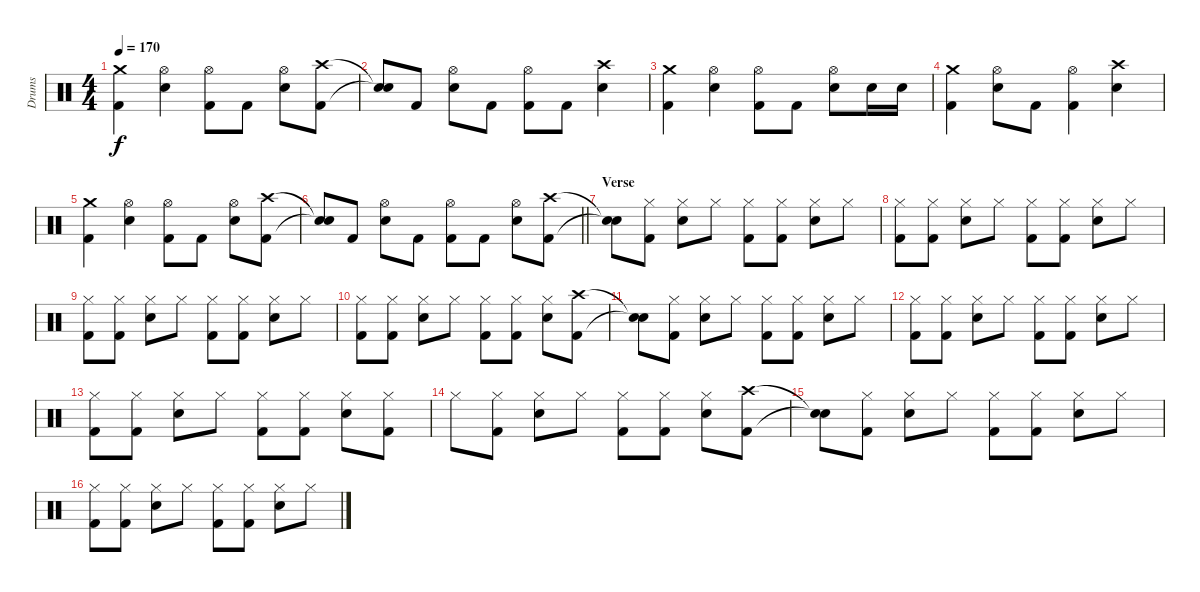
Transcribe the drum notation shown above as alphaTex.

\track ("Drums" "Drums") {instrument percussion}
\staff {score}
\articulation defaults
\ts (4 4)
\tempo 170
\clef neutral
\ks c
("Crash medium (hit)" "Kick (hit) 2").4{dy f} ("Hi-Hat (open)" "Electric Snare (hit)").4 ("Hi-Hat (open)" "Kick (hit) 2").8 "Kick (hit) 2".8 ("Hi-Hat (open)" "Electric Snare (hit)").8 ("Crash high (hit)" "Kick (hit) 2").8 |
("Snare (hit)"{t} "Snare (hit)"{t}).8 "Kick (hit) 2".8 ("Hi-Hat (open)" "Electric Snare (hit)").8 "Kick (hit) 2".8 ("Hi-Hat (open)" "Kick (hit) 2").8 "Kick (hit) 2".8 ("Crash high (hit)" "Electric Snare (hit)").4 |
("Crash medium (hit)" "Kick (hit) 2").4 ("Hi-Hat (open)" "Electric Snare (hit)").4 ("Hi-Hat (open)" "Kick (hit) 2").8 "Kick (hit) 2".8 ("Hi-Hat (open)" "Electric Snare (hit)").8 "Electric Snare (hit)".16 "Electric Snare (hit)".16 |
("Crash medium (hit)" "Kick (hit) 2").4 ("Hi-Hat (open)" "Electric Snare (hit)").8 "Kick (hit) 2".8 ("Hi-Hat (open)" "Kick (hit) 2").4 ("Crash high (hit)" "Electric Snare (hit)").4 |
("Crash medium (hit)" "Kick (hit) 2").4 ("Hi-Hat (open)" "Electric Snare (hit)").4 ("Hi-Hat (open)" "Kick (hit) 2").8 "Kick (hit) 2".8 ("Hi-Hat (open)" "Electric Snare (hit)").8 ("Crash high (hit)" "Kick (hit) 2").8 |
\barLineRight lightlight
("Snare (hit)"{t} "Snare (hit)"{t}).8 "Kick (hit) 2".8 ("Hi-Hat (open)" "Electric Snare (hit)").8 "Kick (hit) 2".8 ("Hi-Hat (open)" "Kick (hit) 2").8 "Kick (hit) 2".8 ("Hi-Hat (open)" "Electric Snare (hit)").8 ("Crash high (hit)" "Kick (hit) 2").8 |
\section ("" "Verse")
("Snare (hit)"{t} "Snare (hit)"{t}).8 ("Hi-Hat (closed)" "Kick (hit) 2").8 ("Hi-Hat (closed)" "Electric Snare (hit)").8 "Hi-Hat (closed)".8 ("Hi-Hat (closed)" "Kick (hit) 2").8 ("Hi-Hat (closed)" "Kick (hit) 2").8 ("Hi-Hat (closed)" "Electric Snare (hit)").8 "Hi-Hat (closed)".8 |
("Hi-Hat (closed)" "Kick (hit) 2").8 ("Hi-Hat (closed)" "Kick (hit) 2").8 ("Hi-Hat (closed)" "Electric Snare (hit)").8 "Hi-Hat (closed)".8 ("Hi-Hat (closed)" "Kick (hit) 2").8 ("Hi-Hat (closed)" "Kick (hit) 2").8 ("Hi-Hat (closed)" "Electric Snare (hit)").8 "Hi-Hat (closed)".8 |
("Hi-Hat (closed)" "Kick (hit) 2").8 ("Hi-Hat (closed)" "Kick (hit) 2").8 ("Hi-Hat (closed)" "Electric Snare (hit)").8 "Hi-Hat (closed)".8 ("Hi-Hat (closed)" "Kick (hit) 2").8 ("Hi-Hat (closed)" "Kick (hit) 2").8 ("Hi-Hat (closed)" "Electric Snare (hit)").8 "Hi-Hat (closed)".8 |
("Hi-Hat (closed)" "Kick (hit) 2").8 ("Hi-Hat (closed)" "Kick (hit) 2").8 ("Hi-Hat (closed)" "Electric Snare (hit)").8 "Hi-Hat (closed)".8 ("Hi-Hat (closed)" "Kick (hit) 2").8 ("Hi-Hat (closed)" "Kick (hit) 2").8 ("Hi-Hat (closed)" "Electric Snare (hit)").8 ("Crash high (hit)" "Kick (hit) 2").8 |
("Snare (hit)"{t} "Snare (hit)"{t}).8 ("Hi-Hat (closed)" "Kick (hit) 2").8 ("Hi-Hat (closed)" "Electric Snare (hit)").8 "Hi-Hat (closed)".8 ("Hi-Hat (closed)" "Kick (hit) 2").8 ("Hi-Hat (closed)" "Kick (hit) 2").8 ("Hi-Hat (closed)" "Electric Snare (hit)").8 "Hi-Hat (closed)".8 |
("Hi-Hat (closed)" "Kick (hit) 2").8 ("Hi-Hat (closed)" "Kick (hit) 2").8 ("Hi-Hat (closed)" "Electric Snare (hit)").8 "Hi-Hat (closed)".8 ("Hi-Hat (closed)" "Kick (hit) 2").8 ("Hi-Hat (closed)" "Kick (hit) 2").8 ("Hi-Hat (closed)" "Electric Snare (hit)").8 "Hi-Hat (closed)".8 |
("Hi-Hat (closed)" "Kick (hit) 2").8 ("Hi-Hat (closed)" "Kick (hit) 2").8 ("Hi-Hat (closed)" "Electric Snare (hit)").8 "Hi-Hat (closed)".8 ("Hi-Hat (closed)" "Kick (hit) 2").8 ("Hi-Hat (closed)" "Kick (hit) 2").8 ("Hi-Hat (closed)" "Electric Snare (hit)").8 ("Hi-Hat (closed)" "Kick (hit) 2").8 |
"Hi-Hat (closed)".8 ("Hi-Hat (closed)" "Kick (hit) 2").8 ("Hi-Hat (closed)" "Electric Snare (hit)").8 "Hi-Hat (closed)".8 ("Hi-Hat (closed)" "Kick (hit) 2").8 ("Hi-Hat (closed)" "Kick (hit) 2").8 ("Hi-Hat (closed)" "Electric Snare (hit)").8 ("Crash high (hit)" "Kick (hit) 2").8 |
("Snare (hit)"{t} "Snare (hit)"{t}).8 ("Hi-Hat (closed)" "Kick (hit) 2").8 ("Hi-Hat (closed)" "Electric Snare (hit)").8 "Hi-Hat (closed)".8 ("Hi-Hat (closed)" "Kick (hit) 2").8 ("Hi-Hat (closed)" "Kick (hit) 2").8 ("Hi-Hat (closed)" "Electric Snare (hit)").8 "Hi-Hat (closed)".8 |
("Hi-Hat (closed)" "Kick (hit) 2").8 ("Hi-Hat (closed)" "Kick (hit) 2").8 ("Hi-Hat (closed)" "Electric Snare (hit)").8 "Hi-Hat (closed)".8 ("Hi-Hat (closed)" "Kick (hit) 2").8 ("Hi-Hat (closed)" "Kick (hit) 2").8 ("Hi-Hat (closed)" "Electric Snare (hit)").8 "Hi-Hat (closed)".8
